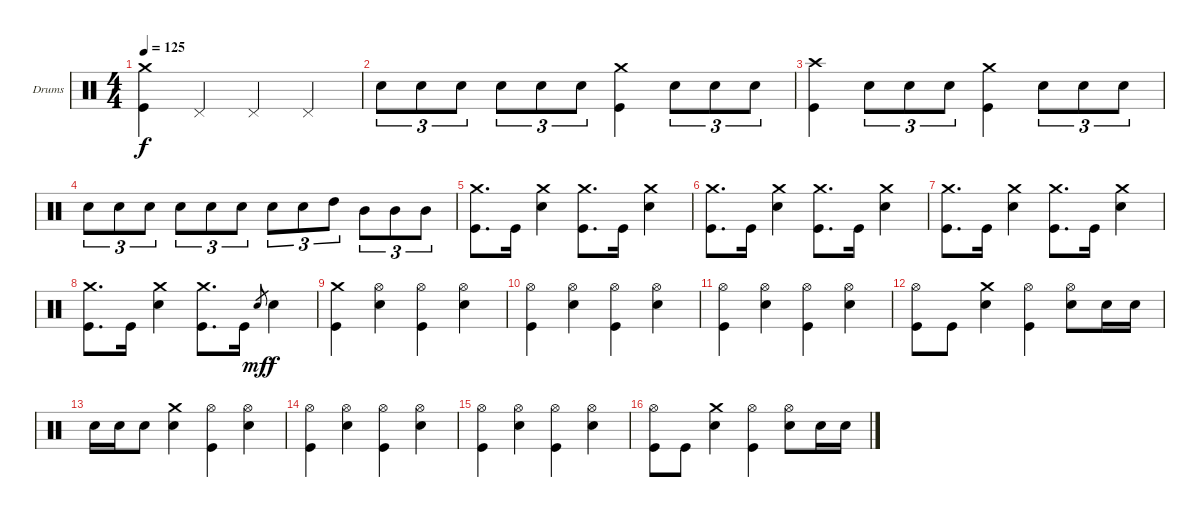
\bracketExtendMode groupsimilarinstruments
\firstSystemTrackNameOrientation horizontal
\otherSystemsTrackNameOrientation horizontal
\track ("Drumkit" "Drums") {instrument percussion}
\staff {score}
\articulation defaults
\ts (4 4)
\tempo 125
\clef neutral
\ks c
("Kick (hit)" "Crash medium (hit)").4{dy f} "Pedal Hi-Hat (hit)".4 "Pedal Hi-Hat (hit)".4 "Pedal Hi-Hat (hit)".4 |
"Snare (hit) 2".8{tu (3 2)} "Snare (hit) 2".8{tu (3 2)} "Snare (hit) 2".8{tu (3 2)} "Snare (hit) 2".8{tu (3 2)} "Snare (hit) 2".8{tu (3 2)} "Snare (hit) 2".8{tu (3 2)} ("Kick (hit)" "Crash medium (hit)").4 "Snare (hit) 2".8{tu (3 2)} "Snare (hit) 2".8{tu (3 2)} "Snare (hit) 2".8{tu (3 2)} |
("Kick (hit)" "Crash high (hit)").4 "Snare (hit) 2".8{tu (3 2)} "Snare (hit) 2".8{tu (3 2)} "Snare (hit) 2".8{tu (3 2)} ("Kick (hit)" "Crash medium (hit)").4 "Snare (hit) 2".8{tu (3 2)} "Snare (hit) 2".8{tu (3 2)} "Snare (hit) 2".8{tu (3 2)} |
"Snare (hit) 2".8{tu (3 2)} "Snare (hit) 2".8{tu (3 2)} "Snare (hit) 2".8{tu (3 2)} "Snare (hit) 2".8{tu (3 2)} "Snare (hit) 2".8{tu (3 2)} "Snare (hit) 2".8{tu (3 2)} "Snare (hit) 2".8{tu (3 2)} "Snare (hit) 2".8{tu (3 2)} "High Tom (hit)".8{tu (3 2)} "Mid Tom (hit)".8{tu (3 2)} "Mid Tom (hit)".8{tu (3 2)} "Mid Tom (hit)".8{tu (3 2)} |
("Kick (hit)" "Crash medium (hit)").8{d} "Kick (hit)".16 ("Snare (hit) 2" "Crash medium (hit)").4 ("Kick (hit)" "Crash medium (hit)").8{d} "Kick (hit)".16 ("Snare (hit) 2" "Crash medium (hit)").4 |
("Kick (hit)" "Crash medium (hit)").8{d} "Kick (hit)".16 ("Snare (hit) 2" "Crash medium (hit)").4 ("Kick (hit)" "Crash medium (hit)").8{d} "Kick (hit)".16 ("Snare (hit) 2" "Crash medium (hit)").4 |
("Kick (hit)" "Crash medium (hit)").8{d} "Kick (hit)".16 ("Snare (hit) 2" "Crash medium (hit)").4 ("Kick (hit)" "Crash medium (hit)").8{d} "Kick (hit)".16 ("Snare (hit) 2" "Crash medium (hit)").4 |
("Kick (hit)" "Crash medium (hit)").8{d} "Kick (hit)".16 ("Snare (hit) 2" "Crash medium (hit)").4 ("Kick (hit)" "Crash medium (hit)").8{d} "Kick (hit)".16 "Snare (hit) 2".8{gr dy mf} "Snare (hit) 2".4{dy f} |
("Kick (hit)" "Crash medium (hit)").4 ("Snare (hit) 2" "Hi-Hat (open)").4 ("Kick (hit)" "Hi-Hat (open)").4 ("Snare (hit) 2" "Hi-Hat (open)").4 |
("Kick (hit)" "Hi-Hat (open)").4 ("Snare (hit) 2" "Hi-Hat (open)").4 ("Kick (hit)" "Hi-Hat (open)").4 ("Snare (hit) 2" "Hi-Hat (open)").4 |
("Kick (hit)" "Hi-Hat (open)").4 ("Snare (hit) 2" "Hi-Hat (open)").4 ("Kick (hit)" "Hi-Hat (open)").4 ("Snare (hit) 2" "Hi-Hat (open)").4 |
("Kick (hit)" "Hi-Hat (open)").8 "Kick (hit)".8 ("Snare (hit) 2" "Crash medium (hit)").4 ("Kick (hit)" "Hi-Hat (open)").4 ("Snare (hit) 2" "Hi-Hat (open)").8 "Snare (hit) 2".16 "Snare (hit) 2".16 |
"Snare (hit) 2".16 "Snare (hit) 2".16 "Snare (hit) 2".8 ("Snare (hit) 2" "Crash medium (hit)").4 ("Kick (hit)" "Hi-Hat (open)").4 ("Snare (hit) 2" "Hi-Hat (open)").4 |
("Kick (hit)" "Hi-Hat (open)").4 ("Snare (hit) 2" "Hi-Hat (open)").4 ("Kick (hit)" "Hi-Hat (open)").4 ("Snare (hit) 2" "Hi-Hat (open)").4 |
("Kick (hit)" "Hi-Hat (open)").4 ("Snare (hit) 2" "Hi-Hat (open)").4 ("Kick (hit)" "Hi-Hat (open)").4 ("Snare (hit) 2" "Hi-Hat (open)").4 |
("Kick (hit)" "Hi-Hat (open)").8 "Kick (hit)".8 ("Snare (hit) 2" "Crash medium (hit)").4 ("Kick (hit)" "Hi-Hat (open)").4 ("Snare (hit) 2" "Hi-Hat (open)").8 "Snare (hit) 2".16 "Snare (hit) 2".16
